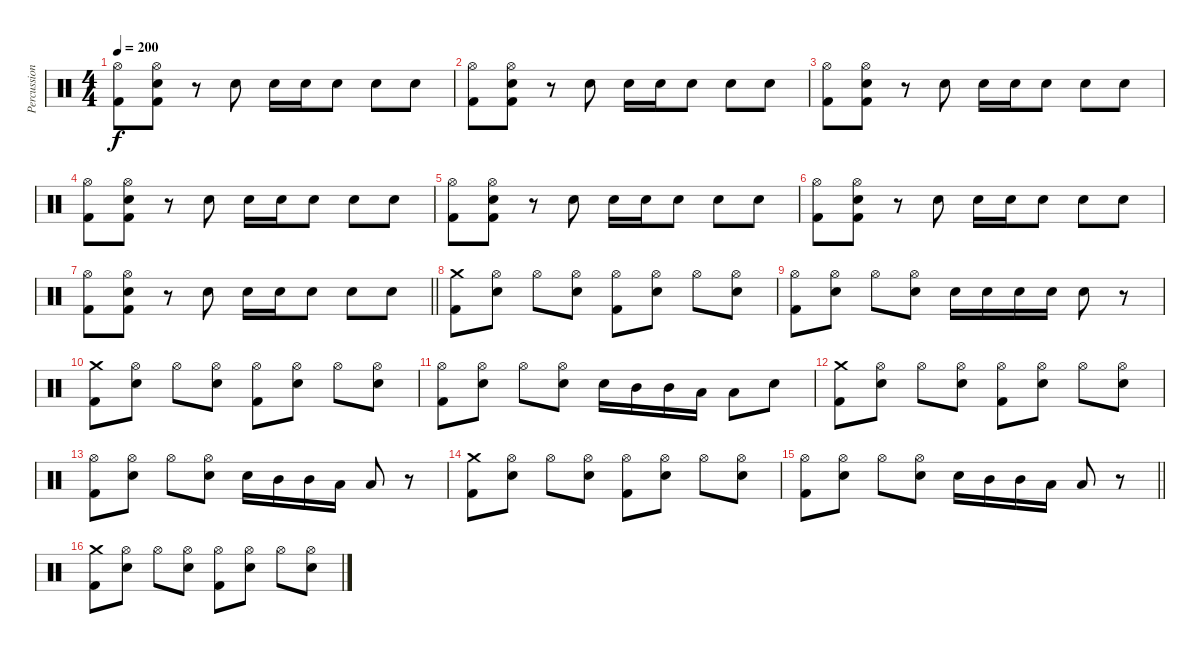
\track ("Percussion" "Percussion") {instrument percussion}
\staff {score}
\articulation defaults
\ts (4 4)
\tempo 200
\clef neutral
\ks c
("Hi-Hat (open)" "Kick (hit) 2").8{dy f} ("Hi-Hat (open)" "Electric Snare (hit)" "Kick (hit) 2").8 r.8 "Electric Snare (hit)".8 "Electric Snare (hit)".16 "Electric Snare (hit)".16 "Electric Snare (hit)".8 "Electric Snare (hit)".8 "Electric Snare (hit)".8 |
("Hi-Hat (open)" "Kick (hit) 2").8 ("Hi-Hat (open)" "Electric Snare (hit)" "Kick (hit) 2").8 r.8 "Electric Snare (hit)".8 "Electric Snare (hit)".16 "Electric Snare (hit)".16 "Electric Snare (hit)".8 "Electric Snare (hit)".8 "Electric Snare (hit)".8 |
("Hi-Hat (open)" "Kick (hit) 2").8 ("Hi-Hat (open)" "Electric Snare (hit)" "Kick (hit) 2").8 r.8 "Electric Snare (hit)".8 "Electric Snare (hit)".16 "Electric Snare (hit)".16 "Electric Snare (hit)".8 "Electric Snare (hit)".8 "Electric Snare (hit)".8 |
("Hi-Hat (open)" "Kick (hit) 2").8 ("Hi-Hat (open)" "Electric Snare (hit)" "Kick (hit) 2").8 r.8 "Electric Snare (hit)".8 "Electric Snare (hit)".16 "Electric Snare (hit)".16 "Electric Snare (hit)".8 "Electric Snare (hit)".8 "Electric Snare (hit)".8 |
("Hi-Hat (open)" "Kick (hit) 2").8 ("Hi-Hat (open)" "Electric Snare (hit)" "Kick (hit) 2").8 r.8 "Electric Snare (hit)".8 "Electric Snare (hit)".16 "Electric Snare (hit)".16 "Electric Snare (hit)".8 "Electric Snare (hit)".8 "Electric Snare (hit)".8 |
("Hi-Hat (open)" "Kick (hit) 2").8 ("Hi-Hat (open)" "Electric Snare (hit)" "Kick (hit) 2").8 r.8 "Electric Snare (hit)".8 "Electric Snare (hit)".16 "Electric Snare (hit)".16 "Electric Snare (hit)".8 "Electric Snare (hit)".8 "Electric Snare (hit)".8 |
\barLineRight lightlight
("Hi-Hat (open)" "Kick (hit) 2").8 ("Hi-Hat (open)" "Electric Snare (hit)" "Kick (hit) 2").8 r.8 "Electric Snare (hit)".8 "Electric Snare (hit)".16 "Electric Snare (hit)".16 "Electric Snare (hit)".8 "Electric Snare (hit)".8 "Electric Snare (hit)".8 |
("Crash medium (hit)" "Kick (hit) 2").8 ("Hi-Hat (open)" "Electric Snare (hit)").8 "Hi-Hat (open)".8 ("Hi-Hat (open)" "Electric Snare (hit)").8 ("Hi-Hat (open)" "Kick (hit) 2").8 ("Hi-Hat (open)" "Electric Snare (hit)").8 "Hi-Hat (open)".8 ("Hi-Hat (open)" "Electric Snare (hit)").8 |
("Hi-Hat (open)" "Kick (hit) 2").8 ("Hi-Hat (open)" "Electric Snare (hit)").8 "Hi-Hat (open)".8 ("Hi-Hat (open)" "Electric Snare (hit)").8 "Electric Snare (hit)".16 "Electric Snare (hit)".16 "Electric Snare (hit)".16 "Electric Snare (hit)".16 "Electric Snare (hit)".8 r.8 |
("Crash medium (hit)" "Kick (hit) 2").8 ("Hi-Hat (open)" "Electric Snare (hit)").8 "Hi-Hat (open)".8 ("Hi-Hat (open)" "Electric Snare (hit)").8 ("Hi-Hat (open)" "Kick (hit) 2").8 ("Hi-Hat (open)" "Electric Snare (hit)").8 "Hi-Hat (open)".8 ("Hi-Hat (open)" "Electric Snare (hit)").8 |
("Hi-Hat (open)" "Kick (hit) 2").8 ("Hi-Hat (open)" "Electric Snare (hit)").8 "Hi-Hat (open)".8 ("Hi-Hat (open)" "Electric Snare (hit)").8 "Electric Snare (hit)".16 "Mid Tom (hit)".16 "Mid Tom (hit)".16 "Low Tom (hit)".16 "Low Tom (hit)".8 "Electric Snare (hit)".8 |
("Crash medium (hit)" "Kick (hit) 2").8 ("Hi-Hat (open)" "Electric Snare (hit)").8 "Hi-Hat (open)".8 ("Hi-Hat (open)" "Electric Snare (hit)").8 ("Hi-Hat (open)" "Kick (hit) 2").8 ("Hi-Hat (open)" "Electric Snare (hit)").8 "Hi-Hat (open)".8 ("Hi-Hat (open)" "Electric Snare (hit)").8 |
("Hi-Hat (open)" "Kick (hit) 2").8 ("Hi-Hat (open)" "Electric Snare (hit)").8 "Hi-Hat (open)".8 ("Hi-Hat (open)" "Electric Snare (hit)").8 "Electric Snare (hit)".16 "Mid Tom (hit)".16 "Mid Tom (hit)".16 "Low Tom (hit)".16 "Low Tom (hit)".8 r.8 |
("Crash medium (hit)" "Kick (hit) 2").8 ("Hi-Hat (open)" "Electric Snare (hit)").8 "Hi-Hat (open)".8 ("Hi-Hat (open)" "Electric Snare (hit)").8 ("Hi-Hat (open)" "Kick (hit) 2").8 ("Hi-Hat (open)" "Electric Snare (hit)").8 "Hi-Hat (open)".8 ("Hi-Hat (open)" "Electric Snare (hit)").8 |
\barLineRight lightlight
("Hi-Hat (open)" "Kick (hit) 2").8 ("Hi-Hat (open)" "Electric Snare (hit)").8 "Hi-Hat (open)".8 ("Hi-Hat (open)" "Electric Snare (hit)").8 "Electric Snare (hit)".16 "Mid Tom (hit)".16 "Mid Tom (hit)".16 "Low Tom (hit)".16 "Low Tom (hit)".8 r.8 |
("Crash medium (hit)" "Kick (hit) 2").8 ("Hi-Hat (open)" "Electric Snare (hit)").8 "Hi-Hat (open)".8 ("Hi-Hat (open)" "Electric Snare (hit)").8 ("Hi-Hat (open)" "Kick (hit) 2").8 ("Hi-Hat (open)" "Electric Snare (hit)").8 "Hi-Hat (open)".8 ("Hi-Hat (open)" "Electric Snare (hit)").8
